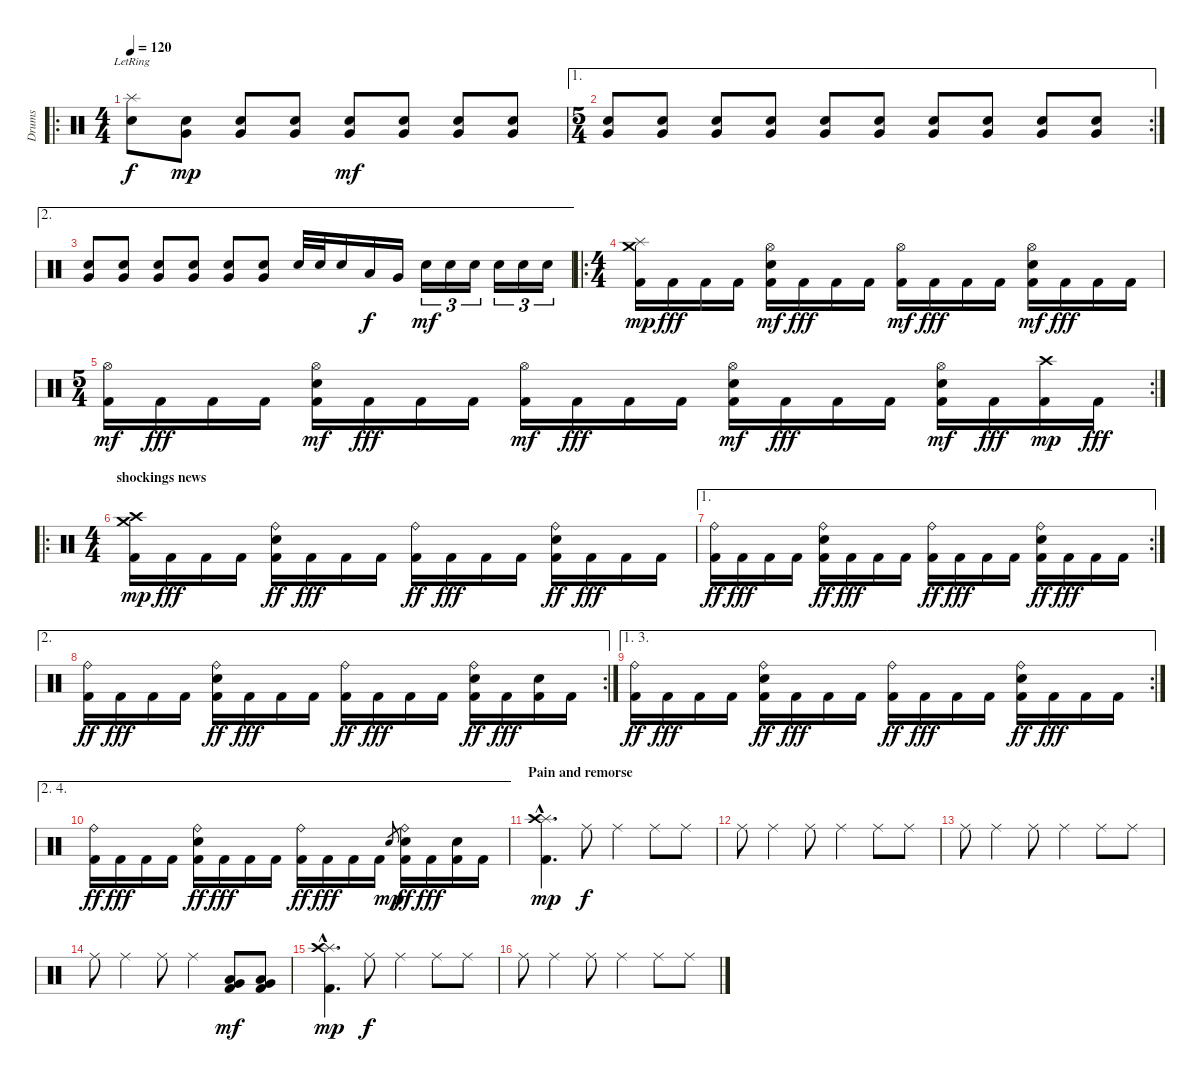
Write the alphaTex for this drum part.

\track ("Drums" "Drums") {instrument percussion}
\staff {score}
\articulation defaults
\ro
\ts (4 4)
\tempo 120
\clef neutral
\ks c
("Splash (hit)"{lr} "Electric Snare (hit)").8{dy f} ("Electric Snare (hit)" "Very Low Tom (hit)").8{dy mp} ("Electric Snare (hit)" "Very Low Tom (hit)").8 ("Electric Snare (hit)" "Very Low Tom (hit)").8 ("Electric Snare (hit)" "Very Low Tom (hit)").8{dy mf} ("Electric Snare (hit)" "Very Low Tom (hit)").8 ("Electric Snare (hit)" "Very Low Tom (hit)").8 ("Electric Snare (hit)" "Very Low Tom (hit)").8 |
\ae 1
\rc 2
\ts (5 4)
("Electric Snare (hit)" "Very Low Tom (hit)").8 ("Electric Snare (hit)" "Very Low Tom (hit)").8 ("Electric Snare (hit)" "Very Low Tom (hit)").8 ("Electric Snare (hit)" "Very Low Tom (hit)").8 ("Electric Snare (hit)" "Very Low Tom (hit)").8 ("Electric Snare (hit)" "Very Low Tom (hit)").8 ("Electric Snare (hit)" "Very Low Tom (hit)").8 ("Electric Snare (hit)" "Very Low Tom (hit)").8 ("Electric Snare (hit)" "Very Low Tom (hit)").8 ("Electric Snare (hit)" "Very Low Tom (hit)").8 |
\ae 2
("Electric Snare (hit)" "Very Low Tom (hit)").8 ("Electric Snare (hit)" "Very Low Tom (hit)").8 ("Electric Snare (hit)" "Very Low Tom (hit)").8 ("Electric Snare (hit)" "Very Low Tom (hit)").8 ("Electric Snare (hit)" "Very Low Tom (hit)").8 ("Electric Snare (hit)" "Very Low Tom (hit)").8 "Electric Snare (hit)".32 "Electric Snare (hit)".32 "Electric Snare (hit)".16 "Low Tom (hit)".16{dy f} "Very Low Tom (hit)".16 "Electric Snare (hit)".16{tu (3 2) dy mf} "Electric Snare (hit)".16{tu (3 2)} "Electric Snare (hit)".16{tu (3 2)} "Electric Snare (hit)".16{tu (3 2)} "Electric Snare (hit)".16{tu (3 2)} "Electric Snare (hit)".16{tu (3 2)} |
\ro
\ts (4 4)
("Kick (hit) 2" "Splash (hit)" "Crash medium (hit)").16{dy mp} "Kick (hit) 2".16{dy fff} "Kick (hit) 2".16 "Kick (hit) 2".16 ("Kick (hit) 2" "Hi-Hat (open)" "Electric Snare (hit)").16{dy mf} "Kick (hit) 2".16{dy fff} "Kick (hit) 2".16 "Kick (hit) 2".16 ("Kick (hit) 2" "Hi-Hat (open)").16{dy mf} "Kick (hit) 2".16{dy fff} "Kick (hit) 2".16 "Kick (hit) 2".16 ("Kick (hit) 2" "Hi-Hat (open)" "Electric Snare (hit)").16{dy mf} "Kick (hit) 2".16{dy fff} "Kick (hit) 2".16 "Kick (hit) 2".16 |
\rc 2
\ts (5 4)
("Kick (hit) 2" "Hi-Hat (open)").16{dy mf} "Kick (hit) 2".16{dy fff} "Kick (hit) 2".16 "Kick (hit) 2".16 ("Kick (hit) 2" "Hi-Hat (open)" "Electric Snare (hit)").16{dy mf} "Kick (hit) 2".16{dy fff} "Kick (hit) 2".16 "Kick (hit) 2".16 ("Kick (hit) 2" "Hi-Hat (open)").16{dy mf} "Kick (hit) 2".16{dy fff} "Kick (hit) 2".16 "Kick (hit) 2".16 ("Kick (hit) 2" "Hi-Hat (open)" "Electric Snare (hit)").16{dy mf} "Kick (hit) 2".16{dy fff} "Kick (hit) 2".16 "Kick (hit) 2".16 ("Kick (hit) 2" "Hi-Hat (open)" "Electric Snare (hit)").16{dy mf} "Kick (hit) 2".16{dy fff} ("Kick (hit) 2" "Crash high (hit)").16{dy mp} "Kick (hit) 2".16{dy fff} |
\ro
\ts (4 4)
\section ("" "shockings news")
("Kick (hit) 2" "Crash high (hit)" "Crash medium (hit)").16{dy mp} "Kick (hit) 2".16{dy fff} "Kick (hit) 2".16 "Kick (hit) 2".16 ("Kick (hit) 2" "Ride (bell)" "Electric Snare (hit)").16{dy ff} "Kick (hit) 2".16{dy fff} "Kick (hit) 2".16 "Kick (hit) 2".16 ("Kick (hit) 2" "Ride (bell)").16{dy ff} "Kick (hit) 2".16{dy fff} "Kick (hit) 2".16 "Kick (hit) 2".16 ("Kick (hit) 2" "Ride (bell)" "Electric Snare (hit)").16{dy ff} "Kick (hit) 2".16{dy fff} "Kick (hit) 2".16 "Kick (hit) 2".16 |
\ae 1
\rc 2
("Kick (hit) 2" "Ride (bell)").16{dy ff} "Kick (hit) 2".16{dy fff} "Kick (hit) 2".16 "Kick (hit) 2".16 ("Kick (hit) 2" "Ride (bell)" "Electric Snare (hit)").16{dy ff} "Kick (hit) 2".16{dy fff} "Kick (hit) 2".16 "Kick (hit) 2".16 ("Kick (hit) 2" "Ride (bell)").16{dy ff} "Kick (hit) 2".16{dy fff} "Kick (hit) 2".16 "Kick (hit) 2".16 ("Kick (hit) 2" "Ride (bell)" "Electric Snare (hit)").16{dy ff} "Kick (hit) 2".16{dy fff} "Kick (hit) 2".16 "Kick (hit) 2".16 |
\ae 2
\rc 2
("Kick (hit) 2" "Ride (bell)").16{dy ff} "Kick (hit) 2".16{dy fff} "Kick (hit) 2".16 "Kick (hit) 2".16 ("Kick (hit) 2" "Ride (bell)" "Electric Snare (hit)").16{dy ff} "Kick (hit) 2".16{dy fff} "Kick (hit) 2".16 "Kick (hit) 2".16 ("Kick (hit) 2" "Ride (bell)").16{dy ff} "Kick (hit) 2".16{dy fff} "Kick (hit) 2".16 "Kick (hit) 2".16 ("Kick (hit) 2" "Ride (bell)" "Electric Snare (hit)").16{dy ff} "Kick (hit) 2".16{dy fff} ("Kick (hit) 2" "Electric Snare (hit)").16 "Kick (hit) 2".16 |
\ae (1 3)
\rc 2
("Kick (hit) 2" "Ride (bell)").16{dy ff} "Kick (hit) 2".16{dy fff} "Kick (hit) 2".16 "Kick (hit) 2".16 ("Kick (hit) 2" "Ride (bell)" "Electric Snare (hit)").16{dy ff} "Kick (hit) 2".16{dy fff} "Kick (hit) 2".16 "Kick (hit) 2".16 ("Kick (hit) 2" "Ride (bell)").16{dy ff} "Kick (hit) 2".16{dy fff} "Kick (hit) 2".16 "Kick (hit) 2".16 ("Kick (hit) 2" "Ride (bell)" "Electric Snare (hit)").16{dy ff} "Kick (hit) 2".16{dy fff} "Kick (hit) 2".16 "Kick (hit) 2".16 |
\ae (2 4)
("Kick (hit) 2" "Ride (bell)").16{dy ff} "Kick (hit) 2".16{dy fff} "Kick (hit) 2".16 "Kick (hit) 2".16 ("Kick (hit) 2" "Ride (bell)" "Electric Snare (hit)").16{dy ff} "Kick (hit) 2".16{dy fff} "Kick (hit) 2".16 "Kick (hit) 2".16 ("Kick (hit) 2" "Ride (bell)").16{dy ff} "Kick (hit) 2".16{dy fff} "Kick (hit) 2".16 "Kick (hit) 2".16 "Snare (hit) 2".8{gr dy mp} ("Kick (hit) 2" "Ride (bell)" "Electric Snare (hit)").16{dy ff} "Kick (hit) 2".16{dy fff} ("Kick (hit) 2" "Electric Snare (hit)").16 "Kick (hit) 2".16 |
\section ("" "Pain and remorse")
("Kick (hit) 2"{hac} "Splash (hit)"{hac} "Crash high (hit)"{hac}).4{d dy mp} "Ride (middle)".8{dy f} "Ride (middle)".4 "Ride (middle)".8 "Ride (middle)".8 |
"Ride (middle)".8 "Ride (middle)".4 "Ride (middle)".8 "Ride (middle)".4 "Ride (middle)".8 "Ride (middle)".8 |
"Ride (middle)".8 "Ride (middle)".4 "Ride (middle)".8 "Ride (middle)".4 "Ride (middle)".8 "Ride (middle)".8 |
"Ride (middle)".8 "Ride (middle)".4 "Ride (middle)".8 "Ride (middle)".4 ("Kick (hit) 2" "Low Tom (hit)" "Very Low Tom (hit)").8{dy mf} ("Kick (hit) 2" "Very Low Tom (hit)" "Low Floor Tom (hit)").8 |
("Kick (hit) 2"{hac} "Splash (hit)"{hac} "Crash high (hit)"{hac}).4{d dy mp} "Ride (middle)".8{dy f} "Ride (middle)".4 "Ride (middle)".8 "Ride (middle)".8 |
"Ride (middle)".8 "Ride (middle)".4 "Ride (middle)".8 "Ride (middle)".4 "Ride (middle)".8 "Ride (middle)".8
